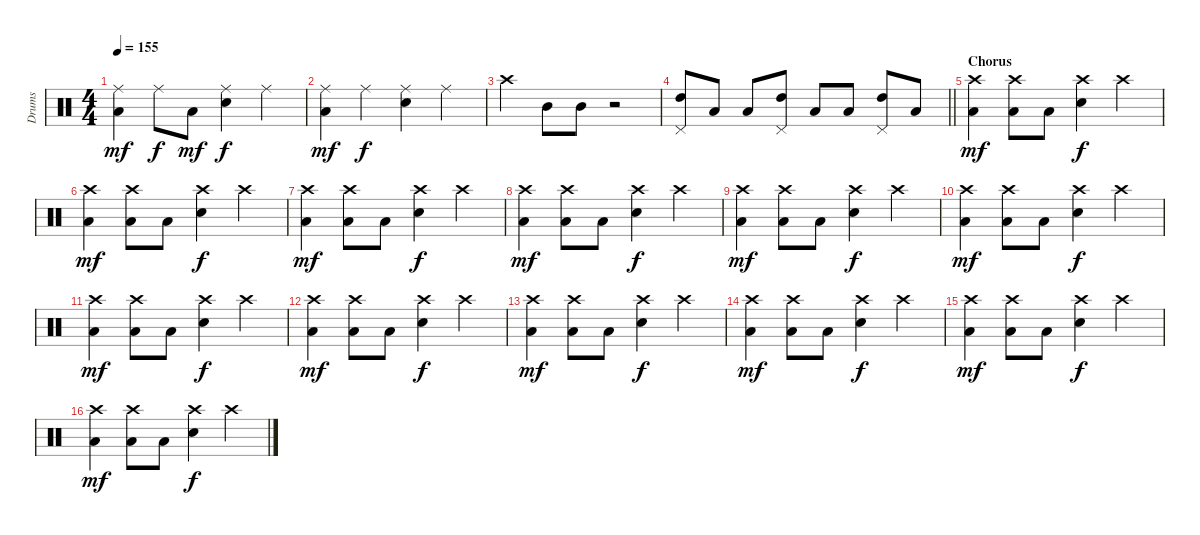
\track ("Drums" "Drums") {instrument percussion}
\staff {score}
\articulation defaults
\ts (4 4)
\tempo 155
\clef neutral
\ks c
("Ride (middle)" "Low Floor Tom (hit)").4{dy mf} "Ride (middle)".8{dy f} "Low Floor Tom (hit)".8{dy mf} ("Ride (middle)" "Electric Snare (hit)").4{dy f} "Ride (middle)".4 |
("Ride (middle)" "Low Floor Tom (hit)").4{dy mf} "Ride (middle)".4{dy f} ("Ride (middle)" "Electric Snare (hit)").4 "Ride (middle)".4 |
"Crash high (hit)".4 "Mid Tom (hit)".8 "Mid Tom (hit)".8 r.2 |
\barLineRight lightlight
("High Tom (hit)" "Pedal Hi-Hat (hit)").8 "Low Tom (hit)".8 "Low Tom (hit)".8 ("High Tom (hit)" "Pedal Hi-Hat (hit)").8 "Low Tom (hit)".8 "Low Tom (hit)".8 ("High Tom (hit)" "Pedal Hi-Hat (hit)").8 "Low Tom (hit)".8 |
\section ("" "Chorus")
("Crash high (hit)" "Low Floor Tom (hit)").4{dy mf} ("Crash high (hit)" "Low Floor Tom (hit)").8 "Low Floor Tom (hit)".8 ("Crash high (hit)" "Electric Snare (hit)").4{dy f} "Crash high (hit)".4 |
("Crash high (hit)" "Low Floor Tom (hit)").4{dy mf} ("Crash high (hit)" "Low Floor Tom (hit)").8 "Low Floor Tom (hit)".8 ("Crash high (hit)" "Electric Snare (hit)").4{dy f} "Crash high (hit)".4 |
("Crash high (hit)" "Low Floor Tom (hit)").4{dy mf} ("Crash high (hit)" "Low Floor Tom (hit)").8 "Low Floor Tom (hit)".8 ("Crash high (hit)" "Electric Snare (hit)").4{dy f} "Crash high (hit)".4 |
("Crash high (hit)" "Low Floor Tom (hit)").4{dy mf} ("Crash high (hit)" "Low Floor Tom (hit)").8 "Low Floor Tom (hit)".8 ("Crash high (hit)" "Electric Snare (hit)").4{dy f} "Crash high (hit)".4 |
("Crash high (hit)" "Low Floor Tom (hit)").4{dy mf} ("Crash high (hit)" "Low Floor Tom (hit)").8 "Low Floor Tom (hit)".8 ("Crash high (hit)" "Electric Snare (hit)").4{dy f} "Crash high (hit)".4 |
("Crash high (hit)" "Low Floor Tom (hit)").4{dy mf} ("Crash high (hit)" "Low Floor Tom (hit)").8 "Low Floor Tom (hit)".8 ("Crash high (hit)" "Electric Snare (hit)").4{dy f} "Crash high (hit)".4 |
("Crash high (hit)" "Low Floor Tom (hit)").4{dy mf} ("Crash high (hit)" "Low Floor Tom (hit)").8 "Low Floor Tom (hit)".8 ("Crash high (hit)" "Electric Snare (hit)").4{dy f} "Crash high (hit)".4 |
("Crash high (hit)" "Low Floor Tom (hit)").4{dy mf} ("Crash high (hit)" "Low Floor Tom (hit)").8 "Low Floor Tom (hit)".8 ("Crash high (hit)" "Electric Snare (hit)").4{dy f} "Crash high (hit)".4 |
("Crash high (hit)" "Low Floor Tom (hit)").4{dy mf} ("Crash high (hit)" "Low Floor Tom (hit)").8 "Low Floor Tom (hit)".8 ("Crash high (hit)" "Electric Snare (hit)").4{dy f} "Crash high (hit)".4 |
("Crash high (hit)" "Low Floor Tom (hit)").4{dy mf} ("Crash high (hit)" "Low Floor Tom (hit)").8 "Low Floor Tom (hit)".8 ("Crash high (hit)" "Electric Snare (hit)").4{dy f} "Crash high (hit)".4 |
("Crash high (hit)" "Low Floor Tom (hit)").4{dy mf} ("Crash high (hit)" "Low Floor Tom (hit)").8 "Low Floor Tom (hit)".8 ("Crash high (hit)" "Electric Snare (hit)").4{dy f} "Crash high (hit)".4 |
("Crash high (hit)" "Low Floor Tom (hit)").4{dy mf} ("Crash high (hit)" "Low Floor Tom (hit)").8 "Low Floor Tom (hit)".8 ("Crash high (hit)" "Electric Snare (hit)").4{dy f} "Crash high (hit)".4
